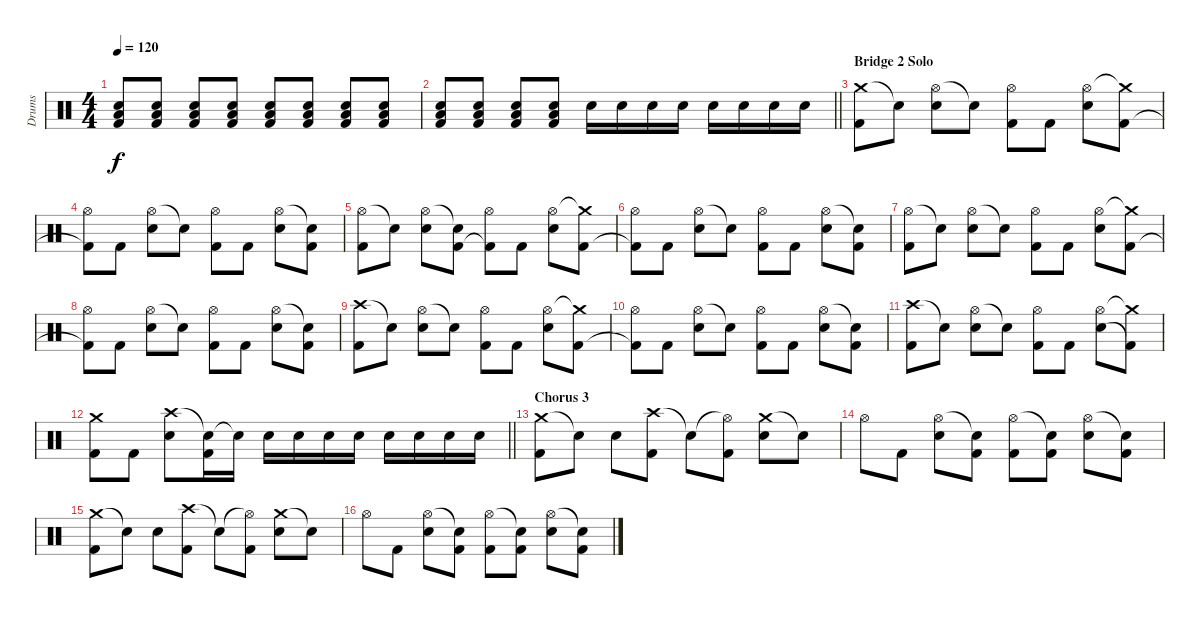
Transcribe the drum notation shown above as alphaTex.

\track ("Drums" "Drums") {instrument percussion}
\staff {score}
\articulation defaults
\ts (4 4)
\tempo 120
\clef neutral
\ks c
("Low Floor Tom (hit)" "Snare (hit) 2" "Kick (hit) 2").8{dy f} ("Low Floor Tom (hit)" "Snare (hit) 2" "Kick (hit) 2").8 ("Low Floor Tom (hit)" "Snare (hit) 2" "Kick (hit) 2").8 ("Low Floor Tom (hit)" "Snare (hit) 2" "Kick (hit) 2").8 ("Low Floor Tom (hit)" "Snare (hit) 2" "Kick (hit) 2").8 ("Low Floor Tom (hit)" "Snare (hit) 2" "Kick (hit) 2").8 ("Low Floor Tom (hit)" "Snare (hit) 2" "Kick (hit) 2").8 ("Low Floor Tom (hit)" "Snare (hit) 2" "Kick (hit) 2").8 |
\barLineRight lightlight
("Low Floor Tom (hit)" "Snare (hit) 2" "Kick (hit) 2").8 ("Low Floor Tom (hit)" "Snare (hit) 2" "Kick (hit) 2").8 ("Low Floor Tom (hit)" "Snare (hit) 2" "Kick (hit) 2").8 ("Low Floor Tom (hit)" "Snare (hit) 2" "Kick (hit) 2").8 "Snare (hit) 2".16 "Snare (hit) 2".16 "Snare (hit) 2".16 "Snare (hit) 2".16 "Snare (hit) 2".16 "Snare (hit) 2".16 "Snare (hit) 2".16 "Snare (hit) 2".16 |
\section ("" "Bridge 2 Solo")
("Crash medium (hit)" "Kick (hit) 2").8 "Snare (hit)"{t}.8 ("Hi-Hat (open)" "Snare (hit) 2").8 "Snare (hit)"{t}.8 ("Hi-Hat (open)" "Kick (hit) 2").8 "Kick (hit) 2".8 ("Hi-Hat (open)" "Snare (hit) 2").8 ("Crash medium (hit)"{t} "Kick (hit) 2").8 |
("Hi-Hat (open)" "Kick (hit) 2"{t}).8 "Kick (hit) 2".8 ("Hi-Hat (open)" "Snare (hit) 2").8 "Snare (hit)"{t}.8 ("Hi-Hat (open)" "Kick (hit) 2").8 "Kick (hit) 2".8 ("Hi-Hat (open)" "Snare (hit) 2").8 ("Snare (hit)"{t} "Kick (hit) 2").8 |
("Hi-Hat (open)" "Kick (hit) 2").8 "Snare (hit)"{t}.8 ("Hi-Hat (open)" "Snare (hit) 2").8 ("Snare (hit)"{t} "Kick (hit) 2").8 ("Hi-Hat (open)" "Kick (hit) 2"{t}).8 "Kick (hit) 2".8 ("Hi-Hat (open)" "Snare (hit) 2").8 ("Crash medium (hit)"{t} "Kick (hit) 2").8 |
("Hi-Hat (open)" "Kick (hit) 2"{t}).8 "Kick (hit) 2".8 ("Hi-Hat (open)" "Snare (hit) 2").8 "Snare (hit)"{t}.8 ("Hi-Hat (open)" "Kick (hit) 2").8 "Kick (hit) 2".8 ("Hi-Hat (open)" "Snare (hit) 2").8 ("Snare (hit)"{t} "Kick (hit) 2").8 |
("Hi-Hat (open)" "Kick (hit) 2").8 "Snare (hit)"{t}.8 ("Hi-Hat (open)" "Snare (hit) 2").8 "Snare (hit)"{t}.8 ("Hi-Hat (open)" "Kick (hit) 2").8 "Kick (hit) 2".8 ("Hi-Hat (open)" "Snare (hit) 2").8 ("Crash medium (hit)"{t} "Kick (hit) 2").8 |
("Hi-Hat (open)" "Kick (hit) 2"{t}).8 "Kick (hit) 2".8 ("Hi-Hat (open)" "Snare (hit) 2").8 "Snare (hit)"{t}.8 ("Hi-Hat (open)" "Kick (hit) 2").8 "Kick (hit) 2".8 ("Hi-Hat (open)" "Snare (hit) 2").8 ("Snare (hit)"{t} "Kick (hit) 2").8 |
("Crash high (hit)" "Kick (hit) 2").8 "Snare (hit)"{t}.8 ("Hi-Hat (open)" "Snare (hit) 2").8 "Snare (hit)"{t}.8 ("Hi-Hat (open)" "Kick (hit) 2").8 "Kick (hit) 2".8 ("Hi-Hat (open)" "Snare (hit) 2").8 ("Crash medium (hit)"{t} "Kick (hit) 2").8 |
("Hi-Hat (open)" "Kick (hit) 2"{t}).8 "Kick (hit) 2".8 ("Hi-Hat (open)" "Snare (hit) 2").8 "Snare (hit)"{t}.8 ("Hi-Hat (open)" "Kick (hit) 2").8 "Kick (hit) 2".8 ("Hi-Hat (open)" "Snare (hit) 2").8 ("Snare (hit)"{t} "Kick (hit) 2").8 |
("Crash high (hit)" "Kick (hit) 2").8 "Snare (hit)"{t}.8 ("Hi-Hat (open)" "Snare (hit) 2").8 "Snare (hit)"{t}.8 ("Hi-Hat (open)" "Kick (hit) 2").8 "Kick (hit) 2".8 ("Hi-Hat (open)" "Snare (hit) 2").8 ("Crash medium (hit)"{t} "Kick (hit) 2"{t}).8 |
\barLineRight lightlight
("Crash medium (hit)" "Kick (hit) 2").8 "Kick (hit) 2".8 ("Crash high (hit)" "Snare (hit) 2").8 ("Snare (hit) 2"{t} "Kick (hit) 2").16 "Snare (hit) 2"{t}.16 "Snare (hit) 2".16 "Snare (hit) 2".16 "Snare (hit) 2".16 "Snare (hit) 2".16 "Snare (hit) 2".16 "Snare (hit) 2".16 "Snare (hit) 2".16 "Snare (hit) 2".16 |
\section ("" "Chorus 3")
("Crash medium (hit)" "Kick (hit) 2").8 "Snare (hit)"{t}.8 "Snare (hit) 2".8 ("Crash high (hit)" "Kick (hit) 2").8 "Snare (hit)"{t}.8 ("Hi-Hat (open)"{t} "Kick (hit) 2").8 ("Crash medium (hit)" "Snare (hit) 2").8 "Snare (hit)"{t}.8 |
"Hi-Hat (open)".8 "Kick (hit) 2".8 ("Hi-Hat (open)" "Snare (hit) 2").8 ("Snare (hit)"{t} "Kick (hit) 2").8 ("Hi-Hat (open)" "Kick (hit) 2").8 ("Snare (hit)"{t} "Kick (hit) 2").8 ("Hi-Hat (open)" "Snare (hit) 2").8 ("Snare (hit)"{t} "Kick (hit) 2").8 |
("Crash medium (hit)" "Kick (hit) 2").8 "Snare (hit)"{t}.8 "Snare (hit) 2".8 ("Crash high (hit)" "Kick (hit) 2").8 "Snare (hit)"{t}.8 ("Hi-Hat (open)"{t} "Kick (hit) 2").8 ("Crash medium (hit)" "Snare (hit) 2").8 "Snare (hit)"{t}.8 |
"Hi-Hat (open)".8 "Kick (hit) 2".8 ("Hi-Hat (open)" "Snare (hit) 2").8 ("Snare (hit)"{t} "Kick (hit) 2").8 ("Hi-Hat (open)" "Kick (hit) 2").8 ("Snare (hit)"{t} "Kick (hit) 2").8 ("Hi-Hat (open)" "Snare (hit) 2").8 ("Snare (hit)"{t} "Kick (hit) 2").8
